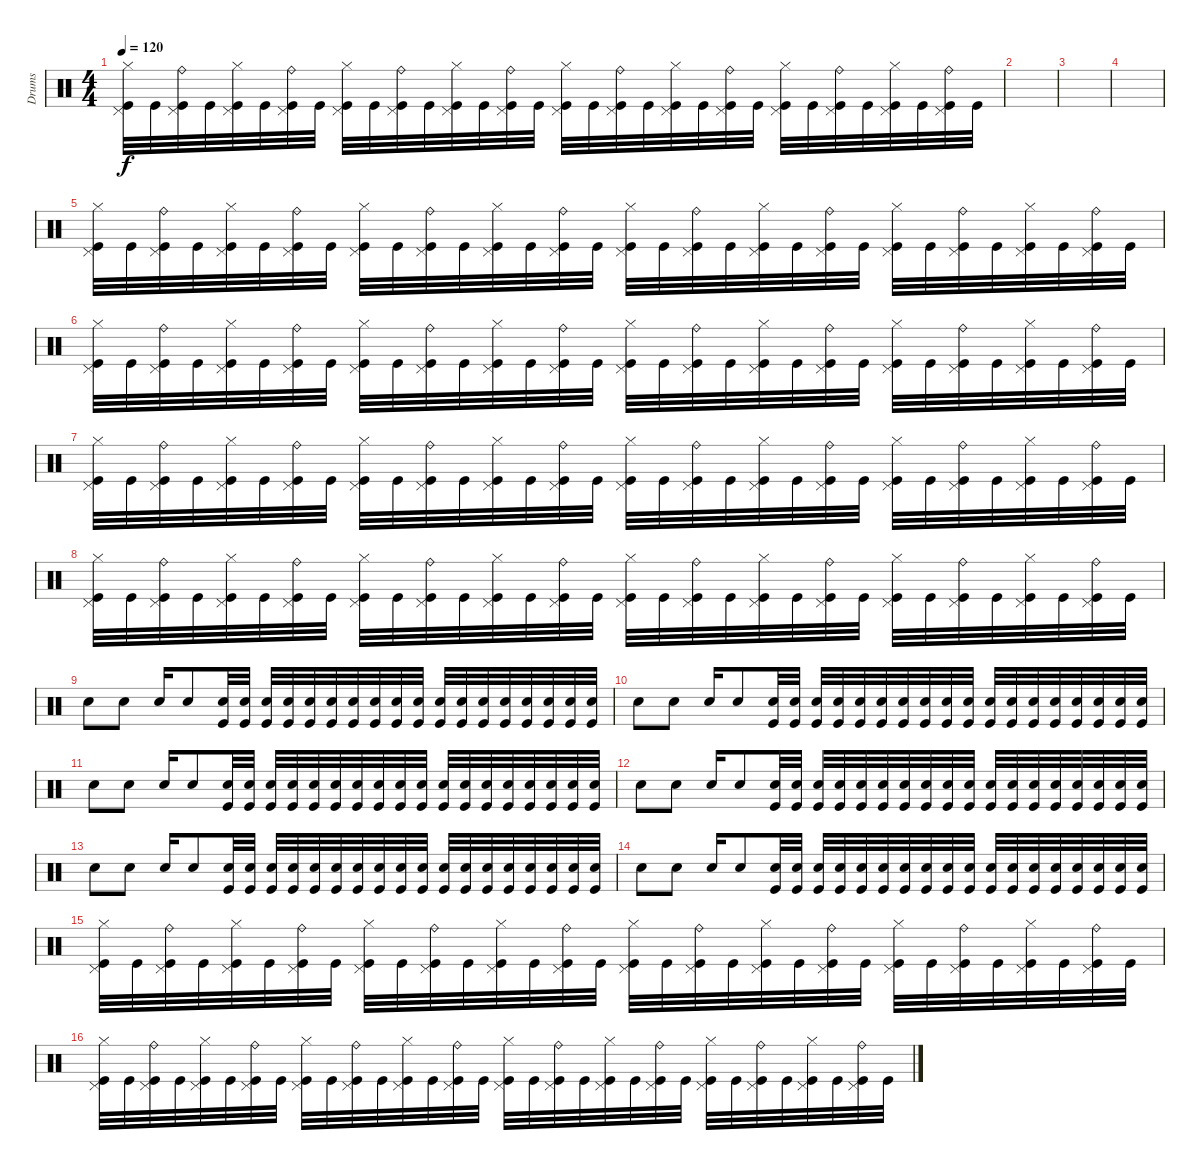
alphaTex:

\track ("Drums" "Drums") {instrument percussion}
\staff {score}
\articulation defaults
\ts (4 4)
\tempo 120
\clef neutral
\ks c
("Hi-Hat (closed)" "Pedal Hi-Hat (hit)" "Kick (hit)").32{dy f} "Kick (hit)".32 ("Ride (bell)" "Pedal Hi-Hat (hit)" "Kick (hit)").32 "Kick (hit)".32 ("Hi-Hat (closed)" "Pedal Hi-Hat (hit)" "Kick (hit)").32 "Kick (hit)".32 ("Ride (bell)" "Pedal Hi-Hat (hit)" "Kick (hit)").32 "Kick (hit)".32 ("Hi-Hat (closed)" "Pedal Hi-Hat (hit)" "Kick (hit)").32 "Kick (hit)".32 ("Ride (bell)" "Pedal Hi-Hat (hit)" "Kick (hit)").32 "Kick (hit)".32 ("Hi-Hat (closed)" "Pedal Hi-Hat (hit)" "Kick (hit)").32 "Kick (hit)".32 ("Ride (bell)" "Pedal Hi-Hat (hit)" "Kick (hit)").32 "Kick (hit)".32 ("Hi-Hat (closed)" "Pedal Hi-Hat (hit)" "Kick (hit)").32 "Kick (hit)".32 ("Ride (bell)" "Pedal Hi-Hat (hit)" "Kick (hit)").32 "Kick (hit)".32 ("Hi-Hat (closed)" "Pedal Hi-Hat (hit)" "Kick (hit)").32 "Kick (hit)".32 ("Ride (bell)" "Pedal Hi-Hat (hit)" "Kick (hit)").32 "Kick (hit)".32 ("Hi-Hat (closed)" "Pedal Hi-Hat (hit)" "Kick (hit)").32 "Kick (hit)".32 ("Ride (bell)" "Pedal Hi-Hat (hit)" "Kick (hit)").32 "Kick (hit)".32 ("Hi-Hat (closed)" "Pedal Hi-Hat (hit)" "Kick (hit)").32 "Kick (hit)".32 ("Ride (bell)" "Pedal Hi-Hat (hit)" "Kick (hit)").32 "Kick (hit)".32 |
|
|
|
("Hi-Hat (closed)" "Pedal Hi-Hat (hit)" "Kick (hit)").32 "Kick (hit)".32 ("Ride (bell)" "Pedal Hi-Hat (hit)" "Kick (hit)").32 "Kick (hit)".32 ("Hi-Hat (closed)" "Pedal Hi-Hat (hit)" "Kick (hit)").32 "Kick (hit)".32 ("Ride (bell)" "Pedal Hi-Hat (hit)" "Kick (hit)").32 "Kick (hit)".32 ("Hi-Hat (closed)" "Pedal Hi-Hat (hit)" "Kick (hit)").32 "Kick (hit)".32 ("Ride (bell)" "Pedal Hi-Hat (hit)" "Kick (hit)").32 "Kick (hit)".32 ("Hi-Hat (closed)" "Pedal Hi-Hat (hit)" "Kick (hit)").32 "Kick (hit)".32 ("Ride (bell)" "Pedal Hi-Hat (hit)" "Kick (hit)").32 "Kick (hit)".32 ("Hi-Hat (closed)" "Pedal Hi-Hat (hit)" "Kick (hit)").32 "Kick (hit)".32 ("Ride (bell)" "Pedal Hi-Hat (hit)" "Kick (hit)").32 "Kick (hit)".32 ("Hi-Hat (closed)" "Pedal Hi-Hat (hit)" "Kick (hit)").32 "Kick (hit)".32 ("Ride (bell)" "Pedal Hi-Hat (hit)" "Kick (hit)").32 "Kick (hit)".32 ("Hi-Hat (closed)" "Pedal Hi-Hat (hit)" "Kick (hit)").32 "Kick (hit)".32 ("Ride (bell)" "Pedal Hi-Hat (hit)" "Kick (hit)").32 "Kick (hit)".32 ("Hi-Hat (closed)" "Pedal Hi-Hat (hit)" "Kick (hit)").32 "Kick (hit)".32 ("Ride (bell)" "Pedal Hi-Hat (hit)" "Kick (hit)").32 "Kick (hit)".32 |
("Hi-Hat (closed)" "Pedal Hi-Hat (hit)" "Kick (hit)").32 "Kick (hit)".32 ("Ride (bell)" "Pedal Hi-Hat (hit)" "Kick (hit)").32 "Kick (hit)".32 ("Hi-Hat (closed)" "Pedal Hi-Hat (hit)" "Kick (hit)").32 "Kick (hit)".32 ("Ride (bell)" "Pedal Hi-Hat (hit)" "Kick (hit)").32 "Kick (hit)".32 ("Hi-Hat (closed)" "Pedal Hi-Hat (hit)" "Kick (hit)").32 "Kick (hit)".32 ("Ride (bell)" "Pedal Hi-Hat (hit)" "Kick (hit)").32 "Kick (hit)".32 ("Hi-Hat (closed)" "Pedal Hi-Hat (hit)" "Kick (hit)").32 "Kick (hit)".32 ("Ride (bell)" "Pedal Hi-Hat (hit)" "Kick (hit)").32 "Kick (hit)".32 ("Hi-Hat (closed)" "Pedal Hi-Hat (hit)" "Kick (hit)").32 "Kick (hit)".32 ("Ride (bell)" "Pedal Hi-Hat (hit)" "Kick (hit)").32 "Kick (hit)".32 ("Hi-Hat (closed)" "Pedal Hi-Hat (hit)" "Kick (hit)").32 "Kick (hit)".32 ("Ride (bell)" "Pedal Hi-Hat (hit)" "Kick (hit)").32 "Kick (hit)".32 ("Hi-Hat (closed)" "Pedal Hi-Hat (hit)" "Kick (hit)").32 "Kick (hit)".32 ("Ride (bell)" "Pedal Hi-Hat (hit)" "Kick (hit)").32 "Kick (hit)".32 ("Hi-Hat (closed)" "Pedal Hi-Hat (hit)" "Kick (hit)").32 "Kick (hit)".32 ("Ride (bell)" "Pedal Hi-Hat (hit)" "Kick (hit)").32 "Kick (hit)".32 |
("Hi-Hat (closed)" "Pedal Hi-Hat (hit)" "Kick (hit)").32 "Kick (hit)".32 ("Ride (bell)" "Pedal Hi-Hat (hit)" "Kick (hit)").32 "Kick (hit)".32 ("Hi-Hat (closed)" "Pedal Hi-Hat (hit)" "Kick (hit)").32 "Kick (hit)".32 ("Ride (bell)" "Pedal Hi-Hat (hit)" "Kick (hit)").32 "Kick (hit)".32 ("Hi-Hat (closed)" "Pedal Hi-Hat (hit)" "Kick (hit)").32 "Kick (hit)".32 ("Ride (bell)" "Pedal Hi-Hat (hit)" "Kick (hit)").32 "Kick (hit)".32 ("Hi-Hat (closed)" "Pedal Hi-Hat (hit)" "Kick (hit)").32 "Kick (hit)".32 ("Ride (bell)" "Pedal Hi-Hat (hit)" "Kick (hit)").32 "Kick (hit)".32 ("Hi-Hat (closed)" "Pedal Hi-Hat (hit)" "Kick (hit)").32 "Kick (hit)".32 ("Ride (bell)" "Pedal Hi-Hat (hit)" "Kick (hit)").32 "Kick (hit)".32 ("Hi-Hat (closed)" "Pedal Hi-Hat (hit)" "Kick (hit)").32 "Kick (hit)".32 ("Ride (bell)" "Pedal Hi-Hat (hit)" "Kick (hit)").32 "Kick (hit)".32 ("Hi-Hat (closed)" "Pedal Hi-Hat (hit)" "Kick (hit)").32 "Kick (hit)".32 ("Ride (bell)" "Pedal Hi-Hat (hit)" "Kick (hit)").32 "Kick (hit)".32 ("Hi-Hat (closed)" "Pedal Hi-Hat (hit)" "Kick (hit)").32 "Kick (hit)".32 ("Ride (bell)" "Pedal Hi-Hat (hit)" "Kick (hit)").32 "Kick (hit)".32 |
("Hi-Hat (closed)" "Pedal Hi-Hat (hit)" "Kick (hit)").32 "Kick (hit)".32 ("Ride (bell)" "Pedal Hi-Hat (hit)" "Kick (hit)").32 "Kick (hit)".32 ("Hi-Hat (closed)" "Pedal Hi-Hat (hit)" "Kick (hit)").32 "Kick (hit)".32 ("Ride (bell)" "Pedal Hi-Hat (hit)" "Kick (hit)").32 "Kick (hit)".32 ("Hi-Hat (closed)" "Pedal Hi-Hat (hit)" "Kick (hit)").32 "Kick (hit)".32 ("Ride (bell)" "Pedal Hi-Hat (hit)" "Kick (hit)").32 "Kick (hit)".32 ("Hi-Hat (closed)" "Pedal Hi-Hat (hit)" "Kick (hit)").32 "Kick (hit)".32 ("Ride (bell)" "Pedal Hi-Hat (hit)" "Kick (hit)").32 "Kick (hit)".32 ("Hi-Hat (closed)" "Pedal Hi-Hat (hit)" "Kick (hit)").32 "Kick (hit)".32 ("Ride (bell)" "Pedal Hi-Hat (hit)" "Kick (hit)").32 "Kick (hit)".32 ("Hi-Hat (closed)" "Pedal Hi-Hat (hit)" "Kick (hit)").32 "Kick (hit)".32 ("Ride (bell)" "Pedal Hi-Hat (hit)" "Kick (hit)").32 "Kick (hit)".32 ("Hi-Hat (closed)" "Pedal Hi-Hat (hit)" "Kick (hit)").32 "Kick (hit)".32 ("Ride (bell)" "Pedal Hi-Hat (hit)" "Kick (hit)").32 "Kick (hit)".32 ("Hi-Hat (closed)" "Pedal Hi-Hat (hit)" "Kick (hit)").32 "Kick (hit)".32 ("Ride (bell)" "Pedal Hi-Hat (hit)" "Kick (hit)").32 "Kick (hit)".32 |
"Electric Snare (hit)".8 "Electric Snare (hit)".8 "Electric Snare (hit)".16 "Electric Snare (hit)".8 ("Kick (hit)" "Electric Snare (hit)").32 ("Kick (hit)" "Electric Snare (hit)").32 ("Kick (hit)" "Electric Snare (hit)").32 ("Kick (hit)" "Electric Snare (hit)").32 ("Kick (hit)" "Electric Snare (hit)").32 ("Kick (hit)" "Electric Snare (hit)").32 ("Kick (hit)" "Electric Snare (hit)").32 ("Kick (hit)" "Electric Snare (hit)").32 ("Kick (hit)" "Electric Snare (hit)").32 ("Kick (hit)" "Electric Snare (hit)").32 ("Kick (hit)" "Electric Snare (hit)").32 ("Kick (hit)" "Electric Snare (hit)").32 ("Kick (hit)" "Electric Snare (hit)").32 ("Kick (hit)" "Electric Snare (hit)").32 ("Kick (hit)" "Electric Snare (hit)").32 ("Kick (hit)" "Electric Snare (hit)").32 ("Kick (hit)" "Electric Snare (hit)").32 ("Kick (hit)" "Electric Snare (hit)").32 |
"Electric Snare (hit)".8 "Electric Snare (hit)".8 "Electric Snare (hit)".16 "Electric Snare (hit)".8 ("Kick (hit)" "Electric Snare (hit)").32 ("Kick (hit)" "Electric Snare (hit)").32 ("Kick (hit)" "Electric Snare (hit)").32 ("Kick (hit)" "Electric Snare (hit)").32 ("Kick (hit)" "Electric Snare (hit)").32 ("Kick (hit)" "Electric Snare (hit)").32 ("Kick (hit)" "Electric Snare (hit)").32 ("Kick (hit)" "Electric Snare (hit)").32 ("Kick (hit)" "Electric Snare (hit)").32 ("Kick (hit)" "Electric Snare (hit)").32 ("Kick (hit)" "Electric Snare (hit)").32 ("Kick (hit)" "Electric Snare (hit)").32 ("Kick (hit)" "Electric Snare (hit)").32 ("Kick (hit)" "Electric Snare (hit)").32 ("Kick (hit)" "Electric Snare (hit)").32 ("Kick (hit)" "Electric Snare (hit)").32 ("Kick (hit)" "Electric Snare (hit)").32 ("Kick (hit)" "Electric Snare (hit)").32 |
"Electric Snare (hit)".8 "Electric Snare (hit)".8 "Electric Snare (hit)".16 "Electric Snare (hit)".8 ("Kick (hit)" "Electric Snare (hit)").32 ("Kick (hit)" "Electric Snare (hit)").32 ("Kick (hit)" "Electric Snare (hit)").32 ("Kick (hit)" "Electric Snare (hit)").32 ("Kick (hit)" "Electric Snare (hit)").32 ("Kick (hit)" "Electric Snare (hit)").32 ("Kick (hit)" "Electric Snare (hit)").32 ("Kick (hit)" "Electric Snare (hit)").32 ("Kick (hit)" "Electric Snare (hit)").32 ("Kick (hit)" "Electric Snare (hit)").32 ("Kick (hit)" "Electric Snare (hit)").32 ("Kick (hit)" "Electric Snare (hit)").32 ("Kick (hit)" "Electric Snare (hit)").32 ("Kick (hit)" "Electric Snare (hit)").32 ("Kick (hit)" "Electric Snare (hit)").32 ("Kick (hit)" "Electric Snare (hit)").32 ("Kick (hit)" "Electric Snare (hit)").32 ("Kick (hit)" "Electric Snare (hit)").32 |
"Electric Snare (hit)".8 "Electric Snare (hit)".8 "Electric Snare (hit)".16 "Electric Snare (hit)".8 ("Kick (hit)" "Electric Snare (hit)").32 ("Kick (hit)" "Electric Snare (hit)").32 ("Kick (hit)" "Electric Snare (hit)").32 ("Kick (hit)" "Electric Snare (hit)").32 ("Kick (hit)" "Electric Snare (hit)").32 ("Kick (hit)" "Electric Snare (hit)").32 ("Kick (hit)" "Electric Snare (hit)").32 ("Kick (hit)" "Electric Snare (hit)").32 ("Kick (hit)" "Electric Snare (hit)").32 ("Kick (hit)" "Electric Snare (hit)").32 ("Kick (hit)" "Electric Snare (hit)").32 ("Kick (hit)" "Electric Snare (hit)").32 ("Kick (hit)" "Electric Snare (hit)").32 ("Kick (hit)" "Electric Snare (hit)").32 ("Kick (hit)" "Electric Snare (hit)").32 ("Kick (hit)" "Electric Snare (hit)").32 ("Kick (hit)" "Electric Snare (hit)").32 ("Kick (hit)" "Electric Snare (hit)").32 |
"Electric Snare (hit)".8 "Electric Snare (hit)".8 "Electric Snare (hit)".16 "Electric Snare (hit)".8 ("Kick (hit)" "Electric Snare (hit)").32 ("Kick (hit)" "Electric Snare (hit)").32 ("Kick (hit)" "Electric Snare (hit)").32 ("Kick (hit)" "Electric Snare (hit)").32 ("Kick (hit)" "Electric Snare (hit)").32 ("Kick (hit)" "Electric Snare (hit)").32 ("Kick (hit)" "Electric Snare (hit)").32 ("Kick (hit)" "Electric Snare (hit)").32 ("Kick (hit)" "Electric Snare (hit)").32 ("Kick (hit)" "Electric Snare (hit)").32 ("Kick (hit)" "Electric Snare (hit)").32 ("Kick (hit)" "Electric Snare (hit)").32 ("Kick (hit)" "Electric Snare (hit)").32 ("Kick (hit)" "Electric Snare (hit)").32 ("Kick (hit)" "Electric Snare (hit)").32 ("Kick (hit)" "Electric Snare (hit)").32 ("Kick (hit)" "Electric Snare (hit)").32 ("Kick (hit)" "Electric Snare (hit)").32 |
"Electric Snare (hit)".8 "Electric Snare (hit)".8 "Electric Snare (hit)".16 "Electric Snare (hit)".8 ("Kick (hit)" "Electric Snare (hit)").32 ("Kick (hit)" "Electric Snare (hit)").32 ("Kick (hit)" "Electric Snare (hit)").32 ("Kick (hit)" "Electric Snare (hit)").32 ("Kick (hit)" "Electric Snare (hit)").32 ("Kick (hit)" "Electric Snare (hit)").32 ("Kick (hit)" "Electric Snare (hit)").32 ("Kick (hit)" "Electric Snare (hit)").32 ("Kick (hit)" "Electric Snare (hit)").32 ("Kick (hit)" "Electric Snare (hit)").32 ("Kick (hit)" "Electric Snare (hit)").32 ("Kick (hit)" "Electric Snare (hit)").32 ("Kick (hit)" "Electric Snare (hit)").32 ("Kick (hit)" "Electric Snare (hit)").32 ("Kick (hit)" "Electric Snare (hit)").32 ("Kick (hit)" "Electric Snare (hit)").32 ("Kick (hit)" "Electric Snare (hit)").32 ("Kick (hit)" "Electric Snare (hit)").32 |
("Hi-Hat (closed)" "Pedal Hi-Hat (hit)" "Kick (hit)").32 "Kick (hit)".32 ("Ride (bell)" "Pedal Hi-Hat (hit)" "Kick (hit)").32 "Kick (hit)".32 ("Hi-Hat (closed)" "Pedal Hi-Hat (hit)" "Kick (hit)").32 "Kick (hit)".32 ("Ride (bell)" "Pedal Hi-Hat (hit)" "Kick (hit)").32 "Kick (hit)".32 ("Hi-Hat (closed)" "Pedal Hi-Hat (hit)" "Kick (hit)").32 "Kick (hit)".32 ("Ride (bell)" "Pedal Hi-Hat (hit)" "Kick (hit)").32 "Kick (hit)".32 ("Hi-Hat (closed)" "Pedal Hi-Hat (hit)" "Kick (hit)").32 "Kick (hit)".32 ("Ride (bell)" "Pedal Hi-Hat (hit)" "Kick (hit)").32 "Kick (hit)".32 ("Hi-Hat (closed)" "Pedal Hi-Hat (hit)" "Kick (hit)").32 "Kick (hit)".32 ("Ride (bell)" "Pedal Hi-Hat (hit)" "Kick (hit)").32 "Kick (hit)".32 ("Hi-Hat (closed)" "Pedal Hi-Hat (hit)" "Kick (hit)").32 "Kick (hit)".32 ("Ride (bell)" "Pedal Hi-Hat (hit)" "Kick (hit)").32 "Kick (hit)".32 ("Hi-Hat (closed)" "Pedal Hi-Hat (hit)" "Kick (hit)").32 "Kick (hit)".32 ("Ride (bell)" "Pedal Hi-Hat (hit)" "Kick (hit)").32 "Kick (hit)".32 ("Hi-Hat (closed)" "Pedal Hi-Hat (hit)" "Kick (hit)").32 "Kick (hit)".32 ("Ride (bell)" "Pedal Hi-Hat (hit)" "Kick (hit)").32 "Kick (hit)".32 |
("Hi-Hat (closed)" "Pedal Hi-Hat (hit)" "Kick (hit)").32 "Kick (hit)".32 ("Ride (bell)" "Pedal Hi-Hat (hit)" "Kick (hit)").32 "Kick (hit)".32 ("Hi-Hat (closed)" "Pedal Hi-Hat (hit)" "Kick (hit)").32 "Kick (hit)".32 ("Ride (bell)" "Pedal Hi-Hat (hit)" "Kick (hit)").32 "Kick (hit)".32 ("Hi-Hat (closed)" "Pedal Hi-Hat (hit)" "Kick (hit)").32 "Kick (hit)".32 ("Ride (bell)" "Pedal Hi-Hat (hit)" "Kick (hit)").32 "Kick (hit)".32 ("Hi-Hat (closed)" "Pedal Hi-Hat (hit)" "Kick (hit)").32 "Kick (hit)".32 ("Ride (bell)" "Pedal Hi-Hat (hit)" "Kick (hit)").32 "Kick (hit)".32 ("Hi-Hat (closed)" "Pedal Hi-Hat (hit)" "Kick (hit)").32 "Kick (hit)".32 ("Ride (bell)" "Pedal Hi-Hat (hit)" "Kick (hit)").32 "Kick (hit)".32 ("Hi-Hat (closed)" "Pedal Hi-Hat (hit)" "Kick (hit)").32 "Kick (hit)".32 ("Ride (bell)" "Pedal Hi-Hat (hit)" "Kick (hit)").32 "Kick (hit)".32 ("Hi-Hat (closed)" "Pedal Hi-Hat (hit)" "Kick (hit)").32 "Kick (hit)".32 ("Ride (bell)" "Pedal Hi-Hat (hit)" "Kick (hit)").32 "Kick (hit)".32 ("Hi-Hat (closed)" "Pedal Hi-Hat (hit)" "Kick (hit)").32 "Kick (hit)".32 ("Ride (bell)" "Pedal Hi-Hat (hit)" "Kick (hit)").32 "Kick (hit)".32
